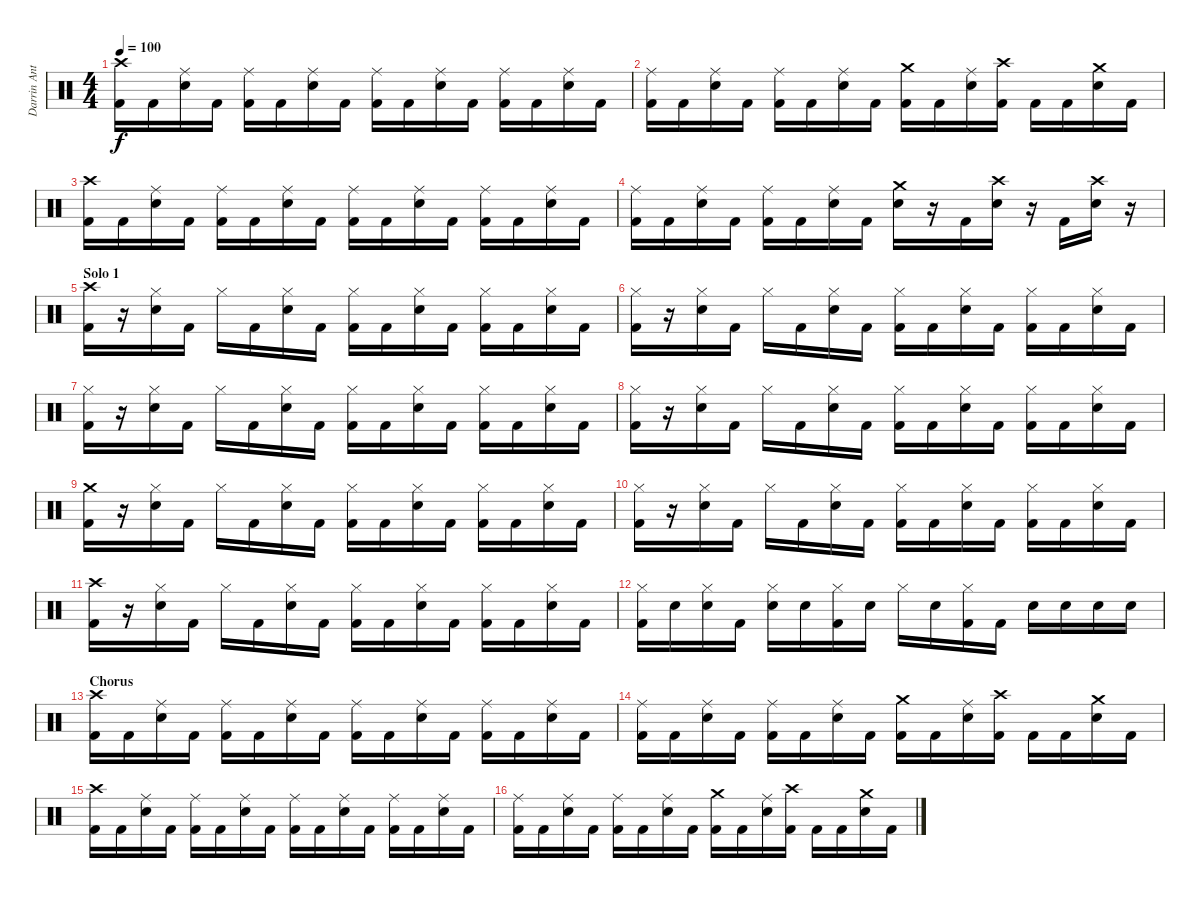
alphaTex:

\track ("Darrin Anthony" "Darrin Ant") {instrument percussion}
\staff {score}
\articulation defaults
\ts (4 4)
\tempo 100
\clef neutral
\ks c
("Crash high (hit)" "Kick (hit) 2").16{dy f} "Kick (hit) 2".16 ("Ride (middle)" "Electric Snare (hit)").16 "Kick (hit) 2".16 ("Ride (middle)" "Kick (hit) 2").16 "Kick (hit) 2".16 ("Ride (middle)" "Electric Snare (hit)").16 "Kick (hit) 2".16 ("Ride (middle)" "Kick (hit) 2").16 "Kick (hit) 2".16 ("Ride (middle)" "Electric Snare (hit)").16 "Kick (hit) 2".16 ("Ride (middle)" "Kick (hit) 2").16 "Kick (hit) 2".16 ("Ride (middle)" "Electric Snare (hit)").16 "Kick (hit) 2".16 |
("Ride (middle)" "Kick (hit) 2").16 "Kick (hit) 2".16 ("Ride (middle)" "Electric Snare (hit)").16 "Kick (hit) 2".16 ("Ride (middle)" "Kick (hit) 2").16 "Kick (hit) 2".16 ("Ride (middle)" "Electric Snare (hit)").16 "Kick (hit) 2".16 ("Crash medium (hit)" "Kick (hit) 2").16 "Kick (hit) 2".16 ("Ride (middle)" "Electric Snare (hit)").16 ("Crash high (hit)" "Kick (hit) 2").16 "Kick (hit) 2".16 "Kick (hit) 2".16 ("Crash medium (hit)" "Electric Snare (hit)").16 "Kick (hit) 2".16 |
("Crash high (hit)" "Kick (hit) 2").16 "Kick (hit) 2".16 ("Ride (middle)" "Electric Snare (hit)").16 "Kick (hit) 2".16 ("Ride (middle)" "Kick (hit) 2").16 "Kick (hit) 2".16 ("Ride (middle)" "Electric Snare (hit)").16 "Kick (hit) 2".16 ("Ride (middle)" "Kick (hit) 2").16 "Kick (hit) 2".16 ("Ride (middle)" "Electric Snare (hit)").16 "Kick (hit) 2".16 ("Ride (middle)" "Kick (hit) 2").16 "Kick (hit) 2".16 ("Ride (middle)" "Electric Snare (hit)").16 "Kick (hit) 2".16 |
("Ride (middle)" "Kick (hit) 2").16 "Kick (hit) 2".16 ("Ride (middle)" "Electric Snare (hit)").16 "Kick (hit) 2".16 ("Ride (middle)" "Kick (hit) 2").16 "Kick (hit) 2".16 ("Ride (middle)" "Electric Snare (hit)").16 "Kick (hit) 2".16 ("Crash medium (hit)" "Electric Snare (hit)").16 r.16 "Kick (hit) 2".16 ("Crash high (hit)" "Electric Snare (hit)").16 r.16 "Kick (hit) 2".16 ("Crash high (hit)" "Electric Snare (hit)").16 r.16 |
\section ("" "Solo 1")
("Crash high (hit)" "Kick (hit) 2").16 r.16 ("Hi-Hat (closed)" "Electric Snare (hit)").16 "Kick (hit) 2".16 "Hi-Hat (closed)".16 "Kick (hit) 2".16 ("Hi-Hat (closed)" "Electric Snare (hit)").16 "Kick (hit) 2".16 ("Hi-Hat (closed)" "Kick (hit) 2").16 "Kick (hit) 2".16 ("Hi-Hat (closed)" "Electric Snare (hit)").16 "Kick (hit) 2".16 ("Hi-Hat (closed)" "Kick (hit) 2").16 "Kick (hit) 2".16 ("Hi-Hat (closed)" "Electric Snare (hit)").16 "Kick (hit) 2".16 |
("Hi-Hat (closed)" "Kick (hit) 2").16 r.16 ("Hi-Hat (closed)" "Electric Snare (hit)").16 "Kick (hit) 2".16 "Hi-Hat (closed)".16 "Kick (hit) 2".16 ("Hi-Hat (closed)" "Electric Snare (hit)").16 "Kick (hit) 2".16 ("Hi-Hat (closed)" "Kick (hit) 2").16 "Kick (hit) 2".16 ("Hi-Hat (closed)" "Electric Snare (hit)").16 "Kick (hit) 2".16 ("Hi-Hat (closed)" "Kick (hit) 2").16 "Kick (hit) 2".16 ("Hi-Hat (closed)" "Electric Snare (hit)").16 "Kick (hit) 2".16 |
("Hi-Hat (closed)" "Kick (hit) 2").16 r.16 ("Hi-Hat (closed)" "Electric Snare (hit)").16 "Kick (hit) 2".16 "Hi-Hat (closed)".16 "Kick (hit) 2".16 ("Hi-Hat (closed)" "Electric Snare (hit)").16 "Kick (hit) 2".16 ("Hi-Hat (closed)" "Kick (hit) 2").16 "Kick (hit) 2".16 ("Hi-Hat (closed)" "Electric Snare (hit)").16 "Kick (hit) 2".16 ("Hi-Hat (closed)" "Kick (hit) 2").16 "Kick (hit) 2".16 ("Hi-Hat (closed)" "Electric Snare (hit)").16 "Kick (hit) 2".16 |
("Hi-Hat (closed)" "Kick (hit) 2").16 r.16 ("Hi-Hat (closed)" "Electric Snare (hit)").16 "Kick (hit) 2".16 "Hi-Hat (closed)".16 "Kick (hit) 2".16 ("Hi-Hat (closed)" "Electric Snare (hit)").16 "Kick (hit) 2".16 ("Hi-Hat (closed)" "Kick (hit) 2").16 "Kick (hit) 2".16 ("Hi-Hat (closed)" "Electric Snare (hit)").16 "Kick (hit) 2".16 ("Hi-Hat (closed)" "Kick (hit) 2").16 "Kick (hit) 2".16 ("Hi-Hat (closed)" "Electric Snare (hit)").16 "Kick (hit) 2".16 |
("Crash medium (hit)" "Kick (hit) 2").16 r.16 ("Hi-Hat (closed)" "Electric Snare (hit)").16 "Kick (hit) 2".16 "Hi-Hat (closed)".16 "Kick (hit) 2".16 ("Hi-Hat (closed)" "Electric Snare (hit)").16 "Kick (hit) 2".16 ("Hi-Hat (closed)" "Kick (hit) 2").16 "Kick (hit) 2".16 ("Hi-Hat (closed)" "Electric Snare (hit)").16 "Kick (hit) 2".16 ("Hi-Hat (closed)" "Kick (hit) 2").16 "Kick (hit) 2".16 ("Hi-Hat (closed)" "Electric Snare (hit)").16 "Kick (hit) 2".16 |
("Hi-Hat (closed)" "Kick (hit) 2").16 r.16 ("Hi-Hat (closed)" "Electric Snare (hit)").16 "Kick (hit) 2".16 "Hi-Hat (closed)".16 "Kick (hit) 2".16 ("Hi-Hat (closed)" "Electric Snare (hit)").16 "Kick (hit) 2".16 ("Hi-Hat (closed)" "Kick (hit) 2").16 "Kick (hit) 2".16 ("Hi-Hat (closed)" "Electric Snare (hit)").16 "Kick (hit) 2".16 ("Hi-Hat (closed)" "Kick (hit) 2").16 "Kick (hit) 2".16 ("Hi-Hat (closed)" "Electric Snare (hit)").16 "Kick (hit) 2".16 |
("Crash high (hit)" "Kick (hit) 2").16 r.16 ("Hi-Hat (closed)" "Electric Snare (hit)").16 "Kick (hit) 2".16 "Hi-Hat (closed)".16 "Kick (hit) 2".16 ("Hi-Hat (closed)" "Electric Snare (hit)").16 "Kick (hit) 2".16 ("Hi-Hat (closed)" "Kick (hit) 2").16 "Kick (hit) 2".16 ("Hi-Hat (closed)" "Electric Snare (hit)").16 "Kick (hit) 2".16 ("Hi-Hat (closed)" "Kick (hit) 2").16 "Kick (hit) 2".16 ("Hi-Hat (closed)" "Electric Snare (hit)").16 "Kick (hit) 2".16 |
("Hi-Hat (closed)" "Kick (hit) 2").16 "Electric Snare (hit)".16 ("Hi-Hat (closed)" "Electric Snare (hit)").16 "Kick (hit) 2".16 ("Hi-Hat (closed)" "Electric Snare (hit)").16 "Electric Snare (hit)".16 ("Hi-Hat (closed)" "Kick (hit) 2").16 "Electric Snare (hit)".16 "Hi-Hat (closed)".16 "Electric Snare (hit)".16 ("Hi-Hat (closed)" "Kick (hit) 2").16 "Kick (hit) 2".16 "Electric Snare (hit)".16 "Electric Snare (hit)".16 "Electric Snare (hit)".16 "Electric Snare (hit)".16 |
\section ("" "Chorus")
("Crash high (hit)" "Kick (hit) 2").16 "Kick (hit) 2".16 ("Ride (middle)" "Electric Snare (hit)").16 "Kick (hit) 2".16 ("Ride (middle)" "Kick (hit) 2").16 "Kick (hit) 2".16 ("Ride (middle)" "Electric Snare (hit)").16 "Kick (hit) 2".16 ("Ride (middle)" "Kick (hit) 2").16 "Kick (hit) 2".16 ("Ride (middle)" "Electric Snare (hit)").16 "Kick (hit) 2".16 ("Ride (middle)" "Kick (hit) 2").16 "Kick (hit) 2".16 ("Ride (middle)" "Electric Snare (hit)").16 "Kick (hit) 2".16 |
("Ride (middle)" "Kick (hit) 2").16 "Kick (hit) 2".16 ("Ride (middle)" "Electric Snare (hit)").16 "Kick (hit) 2".16 ("Ride (middle)" "Kick (hit) 2").16 "Kick (hit) 2".16 ("Ride (middle)" "Electric Snare (hit)").16 "Kick (hit) 2".16 ("Crash medium (hit)" "Kick (hit) 2").16 "Kick (hit) 2".16 ("Ride (middle)" "Electric Snare (hit)").16 ("Crash high (hit)" "Kick (hit) 2").16 "Kick (hit) 2".16 "Kick (hit) 2".16 ("Crash medium (hit)" "Electric Snare (hit)").16 "Kick (hit) 2".16 |
("Crash high (hit)" "Kick (hit) 2").16 "Kick (hit) 2".16 ("Ride (middle)" "Electric Snare (hit)").16 "Kick (hit) 2".16 ("Ride (middle)" "Kick (hit) 2").16 "Kick (hit) 2".16 ("Ride (middle)" "Electric Snare (hit)").16 "Kick (hit) 2".16 ("Ride (middle)" "Kick (hit) 2").16 "Kick (hit) 2".16 ("Ride (middle)" "Electric Snare (hit)").16 "Kick (hit) 2".16 ("Ride (middle)" "Kick (hit) 2").16 "Kick (hit) 2".16 ("Ride (middle)" "Electric Snare (hit)").16 "Kick (hit) 2".16 |
("Ride (middle)" "Kick (hit) 2").16 "Kick (hit) 2".16 ("Ride (middle)" "Electric Snare (hit)").16 "Kick (hit) 2".16 ("Ride (middle)" "Kick (hit) 2").16 "Kick (hit) 2".16 ("Ride (middle)" "Electric Snare (hit)").16 "Kick (hit) 2".16 ("Crash medium (hit)" "Kick (hit) 2").16 "Kick (hit) 2".16 ("Ride (middle)" "Electric Snare (hit)").16 ("Crash high (hit)" "Kick (hit) 2").16 "Kick (hit) 2".16 "Kick (hit) 2".16 ("Crash medium (hit)" "Electric Snare (hit)").16 "Kick (hit) 2".16
